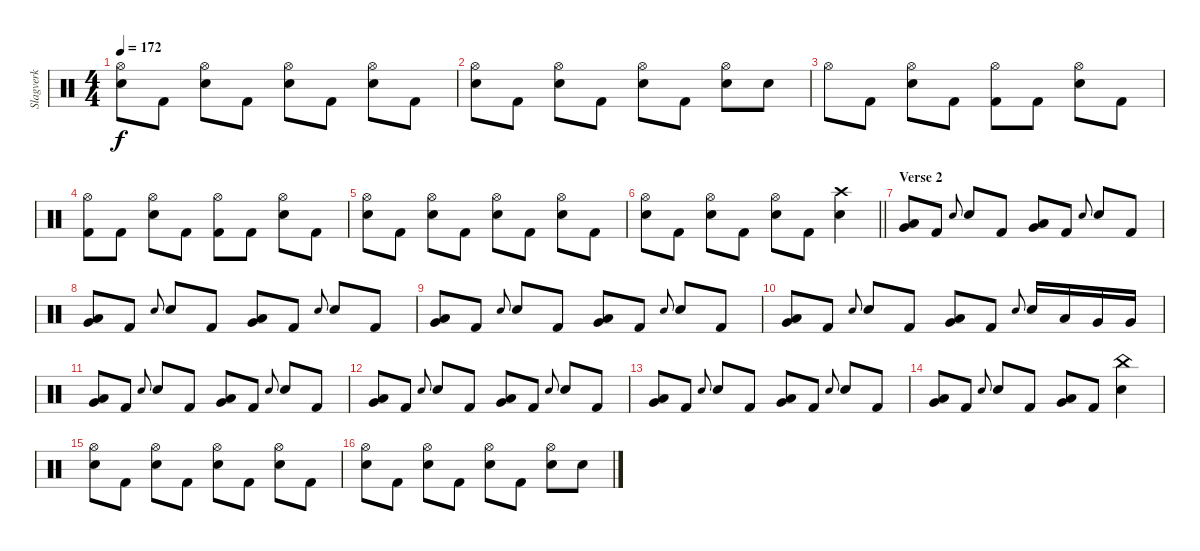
\track ("Slagverk" "Slagverk") {instrument percussion}
\staff {score}
\articulation defaults
\ts (4 4)
\tempo 172
\clef neutral
\ks c
("Hi-Hat (open)" "Electric Snare (hit)").8{dy f} "Kick (hit) 2".8 ("Hi-Hat (open)" "Electric Snare (hit)").8 "Kick (hit) 2".8 ("Hi-Hat (open)" "Electric Snare (hit)").8 "Kick (hit) 2".8 ("Hi-Hat (open)" "Electric Snare (hit)").8 "Kick (hit) 2".8 |
("Hi-Hat (open)" "Electric Snare (hit)").8 "Kick (hit) 2".8 ("Hi-Hat (open)" "Electric Snare (hit)").8 "Kick (hit) 2".8 ("Hi-Hat (open)" "Electric Snare (hit)").8 "Kick (hit) 2".8 ("Hi-Hat (open)" "Electric Snare (hit)").8 "Electric Snare (hit)".8 |
"Hi-Hat (open)".8 "Kick (hit) 2".8 ("Hi-Hat (open)" "Electric Snare (hit)").8 "Kick (hit) 2".8 ("Hi-Hat (open)" "Kick (hit) 2").8 "Kick (hit) 2".8 ("Hi-Hat (open)" "Electric Snare (hit)").8 "Kick (hit) 2".8 |
("Hi-Hat (open)" "Kick (hit) 2").8 "Kick (hit) 2".8 ("Hi-Hat (open)" "Electric Snare (hit)").8 "Kick (hit) 2".8 ("Hi-Hat (open)" "Kick (hit) 2").8 "Kick (hit) 2".8 ("Hi-Hat (open)" "Electric Snare (hit)").8 "Kick (hit) 2".8 |
("Hi-Hat (open)" "Electric Snare (hit)").8 "Kick (hit) 2".8 ("Hi-Hat (open)" "Electric Snare (hit)").8 "Kick (hit) 2".8 ("Hi-Hat (open)" "Electric Snare (hit)").8 "Kick (hit) 2".8 ("Hi-Hat (open)" "Electric Snare (hit)").8 "Kick (hit) 2".8 |
\barLineRight lightlight
("Hi-Hat (open)" "Electric Snare (hit)").8 "Kick (hit) 2".8 ("Hi-Hat (open)" "Electric Snare (hit)").8 "Kick (hit) 2".8 ("Hi-Hat (open)" "Electric Snare (hit)").8 "Kick (hit) 2".8 ("Crash high (hit)" "Electric Snare (hit)").4 |
\section ("" "Verse 2")
("Very Low Tom (hit)" "Low Tom (hit)").8 "Kick (hit) 2".8 "Electric Snare (hit)".8{gr onbeat} "Electric Snare (hit)".8 "Kick (hit) 2".8 ("Very Low Tom (hit)" "Low Tom (hit)").8 "Kick (hit) 2".8 "Electric Snare (hit)".8{gr onbeat} "Electric Snare (hit)".8 "Kick (hit) 2".8 |
("Very Low Tom (hit)" "Low Tom (hit)").8 "Kick (hit) 2".8 "Electric Snare (hit)".8{gr onbeat} "Electric Snare (hit)".8 "Kick (hit) 2".8 ("Very Low Tom (hit)" "Low Tom (hit)").8 "Kick (hit) 2".8 "Electric Snare (hit)".8{gr onbeat} "Electric Snare (hit)".8 "Kick (hit) 2".8 |
("Very Low Tom (hit)" "Low Tom (hit)").8 "Kick (hit) 2".8 "Electric Snare (hit)".8{gr onbeat} "Electric Snare (hit)".8 "Kick (hit) 2".8 ("Very Low Tom (hit)" "Low Tom (hit)").8 "Kick (hit) 2".8 "Electric Snare (hit)".8{gr onbeat} "Electric Snare (hit)".8 "Kick (hit) 2".8 |
("Very Low Tom (hit)" "Low Tom (hit)").8 "Kick (hit) 2".8 "Electric Snare (hit)".8{gr onbeat} "Electric Snare (hit)".8 "Kick (hit) 2".8 ("Very Low Tom (hit)" "Low Tom (hit)").8 "Kick (hit) 2".8 "Electric Snare (hit)".8{gr onbeat} "Electric Snare (hit)".16 "Low Tom (hit)".16 "Very Low Tom (hit)".16 "Very Low Tom (hit)".16 |
("Very Low Tom (hit)" "Low Tom (hit)").8 "Kick (hit) 2".8 "Electric Snare (hit)".8{gr onbeat} "Electric Snare (hit)".8 "Kick (hit) 2".8 ("Very Low Tom (hit)" "Low Tom (hit)").8 "Kick (hit) 2".8 "Electric Snare (hit)".8{gr onbeat} "Electric Snare (hit)".8 "Kick (hit) 2".8 |
("Very Low Tom (hit)" "Low Tom (hit)").8 "Kick (hit) 2".8 "Electric Snare (hit)".8{gr onbeat} "Electric Snare (hit)".8 "Kick (hit) 2".8 ("Very Low Tom (hit)" "Low Tom (hit)").8 "Kick (hit) 2".8 "Electric Snare (hit)".8{gr onbeat} "Electric Snare (hit)".8 "Kick (hit) 2".8 |
("Very Low Tom (hit)" "Low Tom (hit)").8 "Kick (hit) 2".8 "Electric Snare (hit)".8{gr onbeat} "Electric Snare (hit)".8 "Kick (hit) 2".8 ("Very Low Tom (hit)" "Low Tom (hit)").8 "Kick (hit) 2".8 "Electric Snare (hit)".8{gr onbeat} "Electric Snare (hit)".8 "Kick (hit) 2".8 |
("Very Low Tom (hit)" "Low Tom (hit)").8 "Kick (hit) 2".8 "Electric Snare (hit)".8{gr onbeat} "Electric Snare (hit)".8 "Kick (hit) 2".8 ("Very Low Tom (hit)" "Low Tom (hit)").8 "Kick (hit) 2".8 ("China (hit)" "Electric Snare (hit)").4 |
("Hi-Hat (open)" "Electric Snare (hit)").8 "Kick (hit) 2".8 ("Hi-Hat (open)" "Electric Snare (hit)").8 "Kick (hit) 2".8 ("Hi-Hat (open)" "Electric Snare (hit)").8 "Kick (hit) 2".8 ("Hi-Hat (open)" "Electric Snare (hit)").8 "Kick (hit) 2".8 |
("Hi-Hat (open)" "Electric Snare (hit)").8 "Kick (hit) 2".8 ("Hi-Hat (open)" "Electric Snare (hit)").8 "Kick (hit) 2".8 ("Hi-Hat (open)" "Electric Snare (hit)").8 "Kick (hit) 2".8 ("Hi-Hat (open)" "Electric Snare (hit)").8 "Electric Snare (hit)".8
